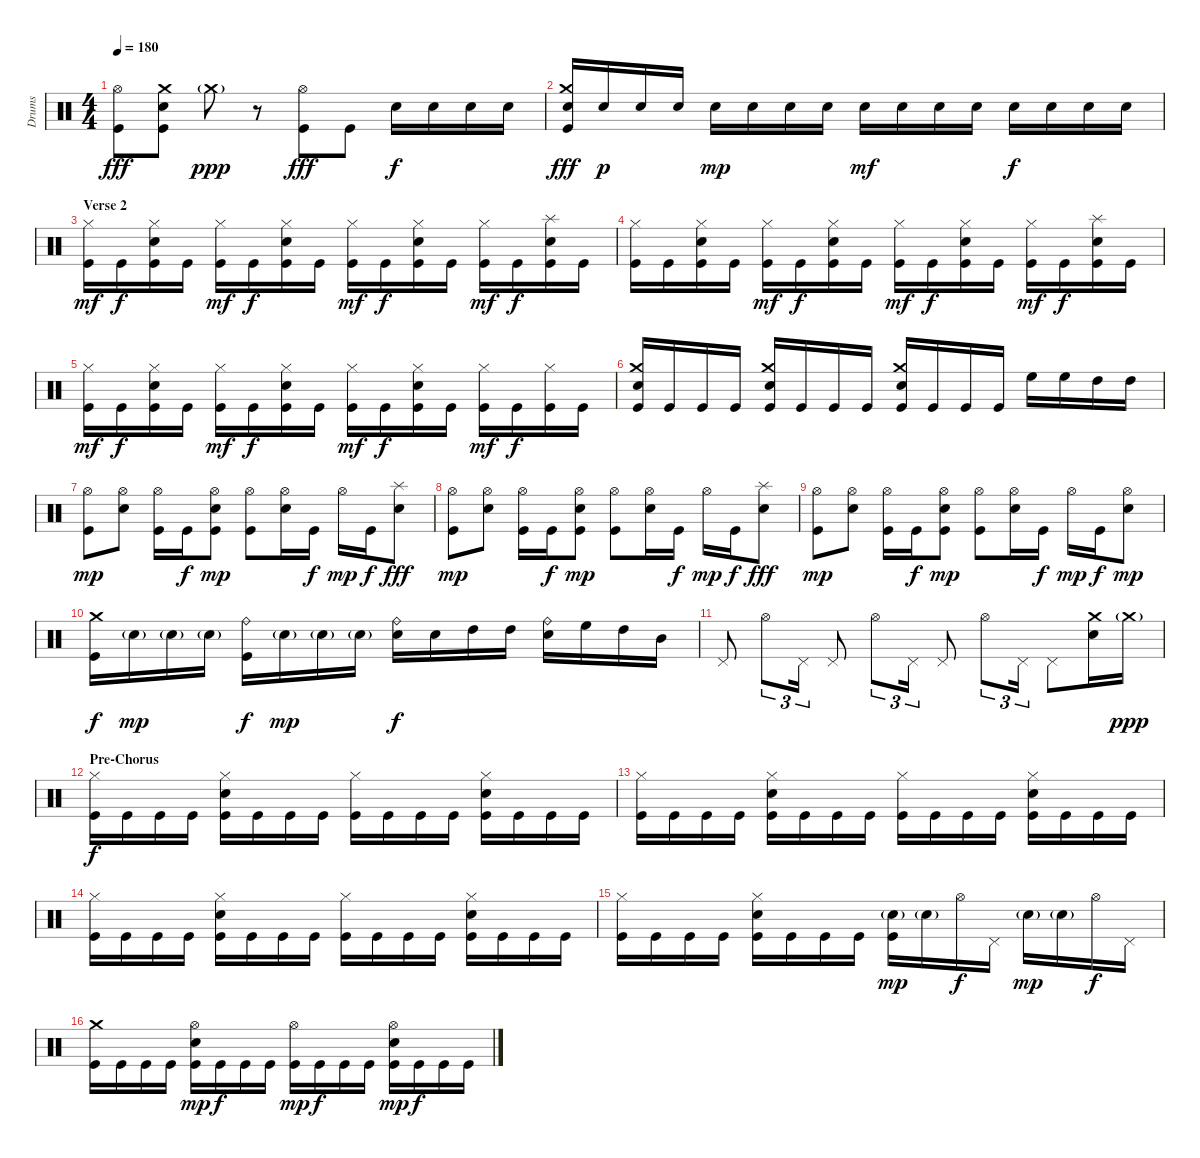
\track ("Drums" "Drums") {instrument percussion}
\staff {score}
\articulation defaults
\ts (4 4)
\tempo 180
\clef neutral
\ks c
("Hi-Hat (open)" "Kick (hit)").8{dy fff} ("Crash medium (hit)" "Electric Snare (hit)" "Kick (hit)").8 "Crash medium (hit)"{g}.8{dy ppp} r.8 ("Hi-Hat (open)" "Kick (hit)").8{dy fff} "Kick (hit)".8 "Electric Snare (hit)".16{dy f} "Electric Snare (hit)".16 "Electric Snare (hit)".16 "Electric Snare (hit)".16 |
("Crash medium (hit)" "Electric Snare (hit)" "Kick (hit)").16{dy fff} "Electric Snare (hit)".16{dy p} "Electric Snare (hit)".16 "Electric Snare (hit)".16 "Electric Snare (hit)".16{dy mp} "Electric Snare (hit)".16 "Electric Snare (hit)".16 "Electric Snare (hit)".16 "Electric Snare (hit)".16{dy mf} "Electric Snare (hit)".16 "Electric Snare (hit)".16 "Electric Snare (hit)".16 "Electric Snare (hit)".16{dy f} "Electric Snare (hit)".16 "Electric Snare (hit)".16 "Electric Snare (hit)".16 |
\section ("" "Verse 2")
("Hi-Hat (closed)" "Kick (hit)").16{dy mf} "Kick (hit)".16{dy f} ("Hi-Hat (closed)" "Electric Snare (hit)" "Kick (hit)").16 "Kick (hit)".16 ("Hi-Hat (closed)" "Kick (hit)").16{dy mf} "Kick (hit)".16{dy f} ("Hi-Hat (closed)" "Electric Snare (hit)" "Kick (hit)").16 "Kick (hit)".16 ("Hi-Hat (closed)" "Kick (hit)").16{dy mf} "Kick (hit)".16{dy f} ("Hi-Hat (closed)" "Electric Snare (hit)" "Kick (hit)").16 "Kick (hit)".16 ("Hi-Hat (closed)" "Kick (hit)").16{dy mf} "Kick (hit)".16{dy f} ("Splash (hit)" "Electric Snare (hit)" "Kick (hit)").16 "Kick (hit)".16 |
("Hi-Hat (closed)" "Kick (hit)").16 "Kick (hit)".16 ("Hi-Hat (closed)" "Electric Snare (hit)" "Kick (hit)").16 "Kick (hit)".16 ("Hi-Hat (closed)" "Kick (hit)").16{dy mf} "Kick (hit)".16{dy f} ("Hi-Hat (closed)" "Electric Snare (hit)" "Kick (hit)").16 "Kick (hit)".16 ("Hi-Hat (closed)" "Kick (hit)").16{dy mf} "Kick (hit)".16{dy f} ("Hi-Hat (closed)" "Electric Snare (hit)" "Kick (hit)").16 "Kick (hit)".16 ("Hi-Hat (closed)" "Kick (hit)").16{dy mf} "Kick (hit)".16{dy f} ("Splash (hit)" "Electric Snare (hit)" "Kick (hit)").16 "Kick (hit)".16 |
("Hi-Hat (closed)" "Kick (hit)").16{dy mf} "Kick (hit)".16{dy f} ("Hi-Hat (closed)" "Electric Snare (hit)" "Kick (hit)").16 "Kick (hit)".16 ("Hi-Hat (closed)" "Kick (hit)").16{dy mf} "Kick (hit)".16{dy f} ("Hi-Hat (closed)" "Electric Snare (hit)" "Kick (hit)").16 "Kick (hit)".16 ("Hi-Hat (closed)" "Kick (hit)").16{dy mf} "Kick (hit)".16{dy f} ("Hi-Hat (closed)" "Electric Snare (hit)" "Kick (hit)").16 "Kick (hit)".16 ("Hi-Hat (closed)" "Kick (hit)").16{dy mf} "Kick (hit)".16{dy f} ("Hi-Hat (closed)" "Kick (hit)").16 "Kick (hit)".16 |
("Crash medium (hit)" "Electric Snare (hit)" "Kick (hit)").16 "Kick (hit)".16 "Kick (hit)".16 "Kick (hit)".16 ("Crash medium (hit)" "Electric Snare (hit)" "Kick (hit)").16 "Kick (hit)".16 "Kick (hit)".16 "Kick (hit)".16 ("Crash medium (hit)" "Electric Snare (hit)" "Kick (hit)").16 "Kick (hit)".16 "Kick (hit)".16 "Kick (hit)".16 "High Floor Tom (hit)".16 "High Floor Tom (hit)".16 "High Tom (hit)".16 "High Tom (hit)".16 |
("Hi-Hat (open)" "Kick (hit)").8{dy mp} ("Hi-Hat (open)" "Electric Snare (hit)").8 ("Hi-Hat (open)" "Kick (hit)").16 "Kick (hit)".16{dy f} ("Hi-Hat (open)" "Electric Snare (hit)" "Kick (hit)").8{dy mp} ("Hi-Hat (open)" "Kick (hit)").8 ("Hi-Hat (open)" "Electric Snare (hit)").16 "Kick (hit)".16{dy f} "Hi-Hat (open)".16{dy mp} "Kick (hit)".16{dy f} ("Splash (hit)" "Electric Snare (hit)").8{dy fff} |
("Hi-Hat (open)" "Kick (hit)").8{dy mp} ("Hi-Hat (open)" "Electric Snare (hit)").8 ("Hi-Hat (open)" "Kick (hit)").16 "Kick (hit)".16{dy f} ("Hi-Hat (open)" "Electric Snare (hit)" "Kick (hit)").8{dy mp} ("Hi-Hat (open)" "Kick (hit)").8 ("Hi-Hat (open)" "Electric Snare (hit)").16 "Kick (hit)".16{dy f} "Hi-Hat (open)".16{dy mp} "Kick (hit)".16{dy f} ("Splash (hit)" "Electric Snare (hit)").8{dy fff} |
("Hi-Hat (open)" "Kick (hit)").8{dy mp} ("Hi-Hat (open)" "Electric Snare (hit)").8 ("Hi-Hat (open)" "Kick (hit)").16 "Kick (hit)".16{dy f} ("Hi-Hat (open)" "Electric Snare (hit)" "Kick (hit)").8{dy mp} ("Hi-Hat (open)" "Kick (hit)").8 ("Hi-Hat (open)" "Electric Snare (hit)").16 "Kick (hit)".16{dy f} "Hi-Hat (open)".16{dy mp} "Kick (hit)".16{dy f} ("Hi-Hat (open)" "Electric Snare (hit)").8{dy mp} |
("Crash medium (hit)" "Kick (hit)").16{dy f} "Electric Snare (hit)"{g}.16{dy mp} "Electric Snare (hit)"{g}.16 "Electric Snare (hit)"{g}.16 ("Ride (bell)" "Kick (hit)").16{dy f} "Electric Snare (hit)"{g}.16{dy mp} "Electric Snare (hit)"{g}.16 "Electric Snare (hit)"{g}.16 ("Ride (bell)" "Electric Snare (hit)").16{dy f} "Electric Snare (hit)".16 "High Tom (hit)".16 "High Tom (hit)".16 ("Ride (bell)" "Electric Snare (hit)").16 "High Floor Tom (hit)".16 "High Tom (hit)".16 "Mid Tom (hit)".16 |
"Pedal Hi-Hat (hit)".8 "Hi-Hat (open)".8{tu (3 2)} "Pedal Hi-Hat (hit)".16{tu (3 2)} "Pedal Hi-Hat (hit)".8 "Hi-Hat (open)".8{tu (3 2)} "Pedal Hi-Hat (hit)".16{tu (3 2)} "Pedal Hi-Hat (hit)".8 "Hi-Hat (open)".8{tu (3 2)} "Pedal Hi-Hat (hit)".16{tu (3 2)} "Pedal Hi-Hat (hit)".8 ("Crash medium (hit)" "Electric Snare (hit)").16 "Crash medium (hit)"{g}.16{dy ppp} |
\section ("" "Pre-Chorus")
("Hi-Hat (closed)" "Kick (hit)").16{dy f} "Kick (hit)".16 "Kick (hit)".16 "Kick (hit)".16 ("Hi-Hat (closed)" "Electric Snare (hit)" "Kick (hit)").16 "Kick (hit)".16 "Kick (hit)".16 "Kick (hit)".16 ("Hi-Hat (closed)" "Kick (hit)").16 "Kick (hit)".16 "Kick (hit)".16 "Kick (hit)".16 ("Hi-Hat (closed)" "Electric Snare (hit)" "Kick (hit)").16 "Kick (hit)".16 "Kick (hit)".16 "Kick (hit)".16 |
("Hi-Hat (closed)" "Kick (hit)").16 "Kick (hit)".16 "Kick (hit)".16 "Kick (hit)".16 ("Hi-Hat (closed)" "Electric Snare (hit)" "Kick (hit)").16 "Kick (hit)".16 "Kick (hit)".16 "Kick (hit)".16 ("Hi-Hat (closed)" "Kick (hit)").16 "Kick (hit)".16 "Kick (hit)".16 "Kick (hit)".16 ("Hi-Hat (closed)" "Electric Snare (hit)" "Kick (hit)").16 "Kick (hit)".16 "Kick (hit)".16 "Kick (hit)".16 |
("Hi-Hat (closed)" "Kick (hit)").16 "Kick (hit)".16 "Kick (hit)".16 "Kick (hit)".16 ("Hi-Hat (closed)" "Electric Snare (hit)" "Kick (hit)").16 "Kick (hit)".16 "Kick (hit)".16 "Kick (hit)".16 ("Hi-Hat (closed)" "Kick (hit)").16 "Kick (hit)".16 "Kick (hit)".16 "Kick (hit)".16 ("Hi-Hat (closed)" "Electric Snare (hit)" "Kick (hit)").16 "Kick (hit)".16 "Kick (hit)".16 "Kick (hit)".16 |
("Hi-Hat (closed)" "Kick (hit)").16 "Kick (hit)".16 "Kick (hit)".16 "Kick (hit)".16 ("Hi-Hat (closed)" "Electric Snare (hit)" "Kick (hit)").16 "Kick (hit)".16 "Kick (hit)".16 "Kick (hit)".16 ("Electric Snare (hit)"{g} "Kick (hit)").16{dy mp} "Electric Snare (hit)"{g}.16 "Hi-Hat (open)".16{dy f} "Pedal Hi-Hat (hit)".16 "Electric Snare (hit)"{g}.16{dy mp} "Electric Snare (hit)"{g}.16 "Hi-Hat (open)".16{dy f} "Pedal Hi-Hat (hit)".16 |
("Crash medium (hit)" "Kick (hit)").16 "Kick (hit)".16 "Kick (hit)".16 "Kick (hit)".16 ("Hi-Hat (open)" "Electric Snare (hit)" "Kick (hit)").16{dy mp} "Kick (hit)".16{dy f} "Kick (hit)".16 "Kick (hit)".16 ("Hi-Hat (open)" "Kick (hit)").16{dy mp} "Kick (hit)".16{dy f} "Kick (hit)".16 "Kick (hit)".16 ("Hi-Hat (open)" "Electric Snare (hit)" "Kick (hit)").16{dy mp} "Kick (hit)".16{dy f} "Kick (hit)".16 "Kick (hit)".16
